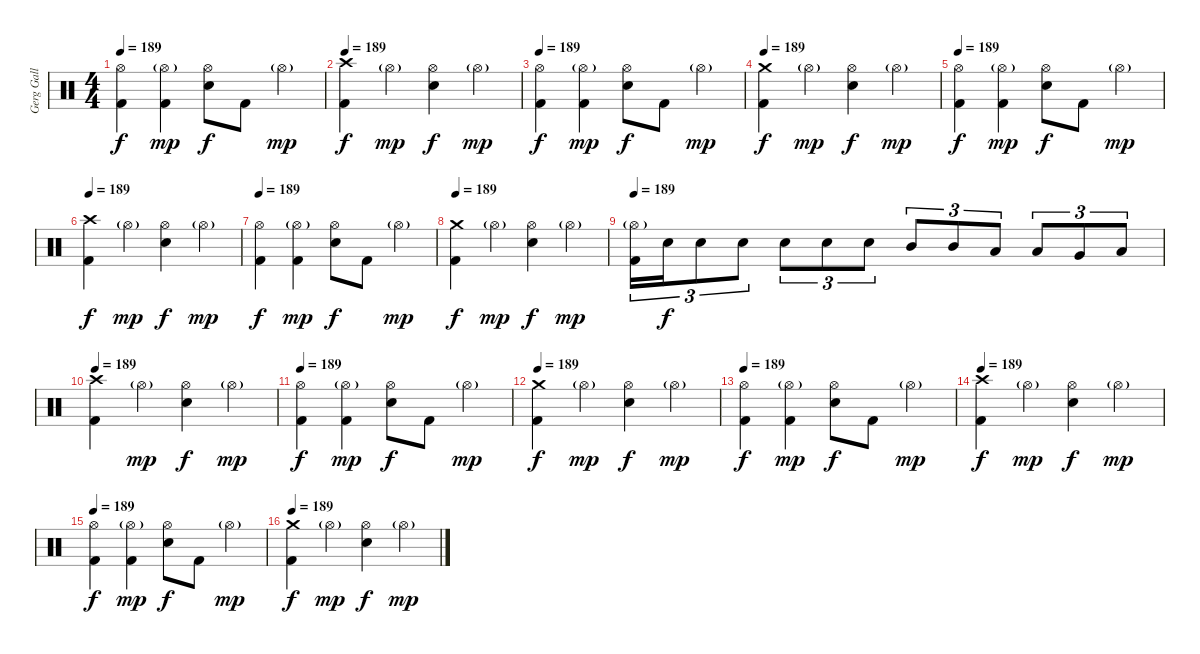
\track ("Gerg Gall (Drums)" "Gerg Gall ") {instrument percussion}
\staff {score}
\articulation defaults
\ts (4 4)
\tempo 189
\clef neutral
\ks c
("Hi-Hat (open)" "Kick (hit) 2").4{dy f} ("Hi-Hat (open)"{g} "Kick (hit) 2").4{dy mp} ("Hi-Hat (open)" "Snare (hit) 2").8{dy f} "Kick (hit) 2".8 "Hi-Hat (open)"{g}.4{dy mp} |
\tempo 189
("Crash high (hit)" "Kick (hit) 2").4{dy f} "Hi-Hat (open)"{g}.4{dy mp} ("Hi-Hat (open)" "Snare (hit) 2").4{dy f} "Hi-Hat (open)"{g}.4{dy mp} |
\tempo 189
("Hi-Hat (open)" "Kick (hit) 2").4{dy f} ("Hi-Hat (open)"{g} "Kick (hit) 2").4{dy mp} ("Hi-Hat (open)" "Snare (hit) 2").8{dy f} "Kick (hit) 2".8 "Hi-Hat (open)"{g}.4{dy mp} |
\tempo 189
("Crash medium (hit)" "Kick (hit) 2").4{dy f} "Hi-Hat (open)"{g}.4{dy mp} ("Hi-Hat (open)" "Snare (hit) 2").4{dy f} "Hi-Hat (open)"{g}.4{dy mp} |
\tempo 189
("Hi-Hat (open)" "Kick (hit) 2").4{dy f} ("Hi-Hat (open)"{g} "Kick (hit) 2").4{dy mp} ("Hi-Hat (open)" "Snare (hit) 2").8{dy f} "Kick (hit) 2".8 "Hi-Hat (open)"{g}.4{dy mp} |
\tempo 189
("Crash high (hit)" "Kick (hit) 2").4{dy f} "Hi-Hat (open)"{g}.4{dy mp} ("Hi-Hat (open)" "Snare (hit) 2").4{dy f} "Hi-Hat (open)"{g}.4{dy mp} |
\tempo 189
("Hi-Hat (open)" "Kick (hit) 2").4{dy f} ("Hi-Hat (open)"{g} "Kick (hit) 2").4{dy mp} ("Hi-Hat (open)" "Snare (hit) 2").8{dy f} "Kick (hit) 2".8 "Hi-Hat (open)"{g}.4{dy mp} |
\tempo 189
("Crash medium (hit)" "Kick (hit) 2").4{dy f} "Hi-Hat (open)"{g}.4{dy mp} ("Hi-Hat (open)" "Snare (hit) 2").4{dy f} "Hi-Hat (open)"{g}.4{dy mp} |
\tempo 189
("Hi-Hat (open)"{g} "Kick (hit) 2").16{tu (3 2)} "Snare (hit) 2".16{tu (3 2) dy f} "Snare (hit) 2".8{tu (3 2)} "Snare (hit) 2".8{tu (3 2)} "Snare (hit) 2".8{tu (3 2)} "Snare (hit) 2".8{tu (3 2)} "Snare (hit) 2".8{tu (3 2)} "Mid Tom (hit)".8{tu (3 2)} "Mid Tom (hit)".8{tu (3 2)} "Low Tom (hit)".8{tu (3 2)} "Low Tom (hit)".8{tu (3 2)} "Very Low Tom (hit)".8{tu (3 2)} "Low Floor Tom (hit)".8{tu (3 2)} |
\tempo 189
("Crash high (hit)" "Kick (hit) 2").4 "Hi-Hat (open)"{g}.4{dy mp} ("Hi-Hat (open)" "Snare (hit) 2").4{dy f} "Hi-Hat (open)"{g}.4{dy mp} |
\tempo 189
("Hi-Hat (open)" "Kick (hit) 2").4{dy f} ("Hi-Hat (open)"{g} "Kick (hit) 2").4{dy mp} ("Hi-Hat (open)" "Snare (hit) 2").8{dy f} "Kick (hit) 2".8 "Hi-Hat (open)"{g}.4{dy mp} |
\tempo 189
("Crash medium (hit)" "Kick (hit) 2").4{dy f} "Hi-Hat (open)"{g}.4{dy mp} ("Hi-Hat (open)" "Snare (hit) 2").4{dy f} "Hi-Hat (open)"{g}.4{dy mp} |
\tempo 189
("Hi-Hat (open)" "Kick (hit) 2").4{dy f} ("Hi-Hat (open)"{g} "Kick (hit) 2").4{dy mp} ("Hi-Hat (open)" "Snare (hit) 2").8{dy f} "Kick (hit) 2".8 "Hi-Hat (open)"{g}.4{dy mp} |
\tempo 189
("Crash high (hit)" "Kick (hit) 2").4{dy f} "Hi-Hat (open)"{g}.4{dy mp} ("Hi-Hat (open)" "Snare (hit) 2").4{dy f} "Hi-Hat (open)"{g}.4{dy mp} |
\tempo 189
("Hi-Hat (open)" "Kick (hit) 2").4{dy f} ("Hi-Hat (open)"{g} "Kick (hit) 2").4{dy mp} ("Hi-Hat (open)" "Snare (hit) 2").8{dy f} "Kick (hit) 2".8 "Hi-Hat (open)"{g}.4{dy mp} |
\tempo 189
("Crash medium (hit)" "Kick (hit) 2").4{dy f} "Hi-Hat (open)"{g}.4{dy mp} ("Hi-Hat (open)" "Snare (hit) 2").4{dy f} "Hi-Hat (open)"{g}.4{dy mp}
